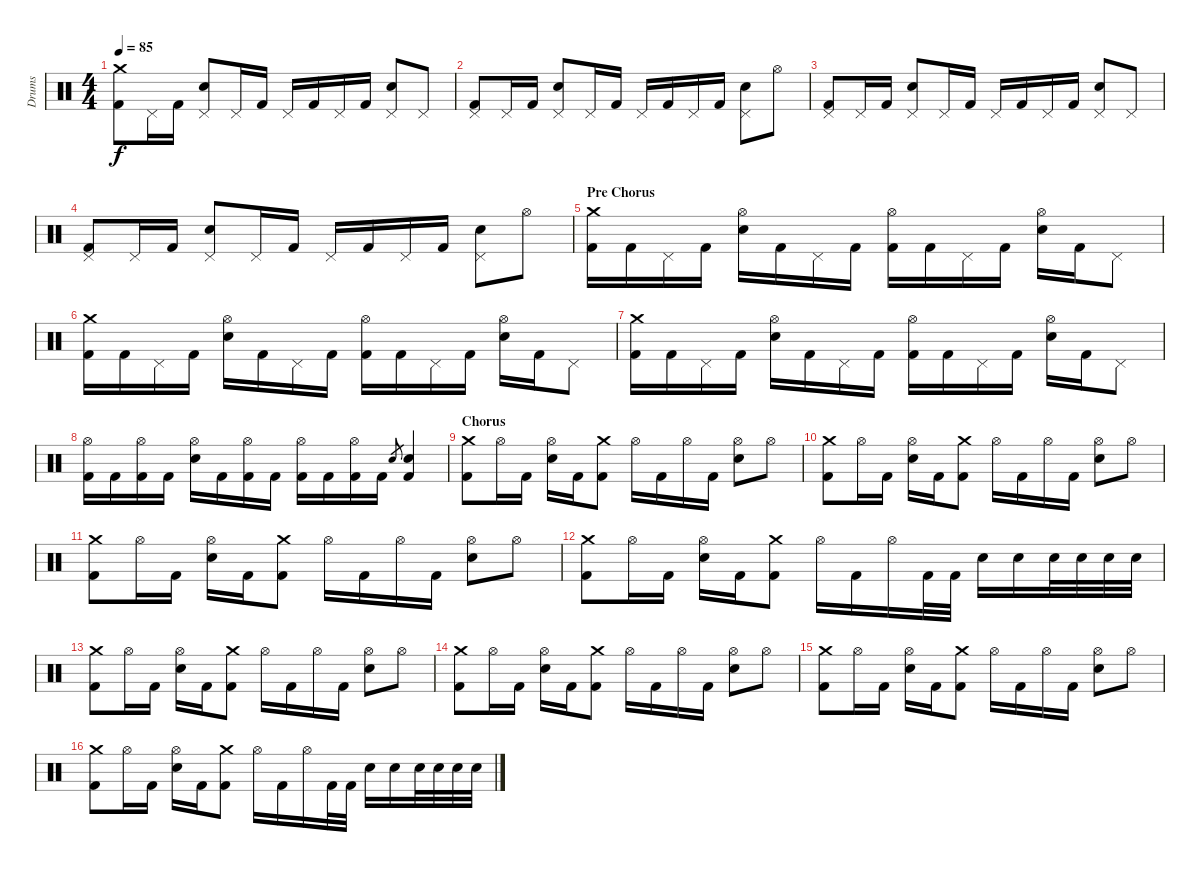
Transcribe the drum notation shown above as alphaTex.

\track ("Drums" "Drums") {instrument percussion}
\staff {score}
\articulation defaults
\ts (4 4)
\tempo 85
\clef neutral
\ks c
("Crash medium (hit)" "Kick (hit) 2").8{dy f} "Pedal Hi-Hat (hit)".16 "Kick (hit) 2".16 ("Pedal Hi-Hat (hit)" "Electric Snare (hit)").8 "Pedal Hi-Hat (hit)".16 "Kick (hit) 2".16 "Pedal Hi-Hat (hit)".16 "Kick (hit) 2".16 "Pedal Hi-Hat (hit)".16 "Kick (hit) 2".16 ("Pedal Hi-Hat (hit)" "Electric Snare (hit)").8 "Pedal Hi-Hat (hit)".8 |
("Pedal Hi-Hat (hit)" "Kick (hit) 2").8 "Pedal Hi-Hat (hit)".16 "Kick (hit) 2".16 ("Pedal Hi-Hat (hit)" "Electric Snare (hit)").8 "Pedal Hi-Hat (hit)".16 "Kick (hit) 2".16 "Pedal Hi-Hat (hit)".16 "Kick (hit) 2".16 "Pedal Hi-Hat (hit)".16 "Kick (hit) 2".16 ("Pedal Hi-Hat (hit)" "Electric Snare (hit)").8 "Hi-Hat (open)".8 |
("Pedal Hi-Hat (hit)" "Kick (hit) 2").8 "Pedal Hi-Hat (hit)".16 "Kick (hit) 2".16 ("Pedal Hi-Hat (hit)" "Electric Snare (hit)").8 "Pedal Hi-Hat (hit)".16 "Kick (hit) 2".16 "Pedal Hi-Hat (hit)".16 "Kick (hit) 2".16 "Pedal Hi-Hat (hit)".16 "Kick (hit) 2".16 ("Pedal Hi-Hat (hit)" "Electric Snare (hit)").8 "Pedal Hi-Hat (hit)".8 |
("Pedal Hi-Hat (hit)" "Kick (hit) 2").8 "Pedal Hi-Hat (hit)".16 "Kick (hit) 2".16 ("Pedal Hi-Hat (hit)" "Electric Snare (hit)").8 "Pedal Hi-Hat (hit)".16 "Kick (hit) 2".16 "Pedal Hi-Hat (hit)".16 "Kick (hit) 2".16 "Pedal Hi-Hat (hit)".16 "Kick (hit) 2".16 ("Pedal Hi-Hat (hit)" "Electric Snare (hit)").8 "Hi-Hat (open)".8 |
\section ("" "Pre Chorus")
("Crash medium (hit)" "Kick (hit) 2").16 "Kick (hit) 2".16 "Pedal Hi-Hat (hit)".16 "Kick (hit) 2".16 ("Hi-Hat (open)" "Electric Snare (hit)").16 "Kick (hit) 2".16 "Pedal Hi-Hat (hit)".16 "Kick (hit) 2".16 ("Hi-Hat (open)" "Kick (hit) 2").16 "Kick (hit) 2".16 "Pedal Hi-Hat (hit)".16 "Kick (hit) 2".16 ("Hi-Hat (open)" "Electric Snare (hit)").16 "Kick (hit) 2".16 "Pedal Hi-Hat (hit)".8 |
("Crash medium (hit)" "Kick (hit) 2").16 "Kick (hit) 2".16 "Pedal Hi-Hat (hit)".16 "Kick (hit) 2".16 ("Hi-Hat (open)" "Electric Snare (hit)").16 "Kick (hit) 2".16 "Pedal Hi-Hat (hit)".16 "Kick (hit) 2".16 ("Hi-Hat (open)" "Kick (hit) 2").16 "Kick (hit) 2".16 "Pedal Hi-Hat (hit)".16 "Kick (hit) 2".16 ("Hi-Hat (open)" "Electric Snare (hit)").16 "Kick (hit) 2".16 "Pedal Hi-Hat (hit)".8 |
("Crash medium (hit)" "Kick (hit) 2").16 "Kick (hit) 2".16 "Pedal Hi-Hat (hit)".16 "Kick (hit) 2".16 ("Hi-Hat (open)" "Electric Snare (hit)").16 "Kick (hit) 2".16 "Pedal Hi-Hat (hit)".16 "Kick (hit) 2".16 ("Hi-Hat (open)" "Kick (hit) 2").16 "Kick (hit) 2".16 "Pedal Hi-Hat (hit)".16 "Kick (hit) 2".16 ("Hi-Hat (open)" "Electric Snare (hit)").16 "Kick (hit) 2".16 "Pedal Hi-Hat (hit)".8 |
("Hi-Hat (open)" "Kick (hit) 2").16 "Kick (hit) 2".16 ("Hi-Hat (open)" "Kick (hit) 2").16 "Kick (hit) 2".16 ("Hi-Hat (open)" "Electric Snare (hit)").16 "Kick (hit) 2".16 ("Hi-Hat (open)" "Kick (hit) 2").16 "Kick (hit) 2".16 ("Hi-Hat (open)" "Kick (hit) 2").16 "Kick (hit) 2".16 ("Hi-Hat (open)" "Kick (hit) 2").16 "Kick (hit) 2".16 "Electric Snare (hit)".8{gr} ("Electric Snare (hit)" "Kick (hit) 2").4 |
\section ("" "Chorus")
("Crash medium (hit)" "Kick (hit) 2").8 "Hi-Hat (open)".16 "Kick (hit) 2".16 ("Hi-Hat (open)" "Electric Snare (hit)").16 "Kick (hit) 2".16 ("Crash medium (hit)" "Kick (hit) 2").8 "Hi-Hat (open)".16 "Kick (hit) 2".16 "Hi-Hat (open)".16 "Kick (hit) 2".16 ("Hi-Hat (open)" "Electric Snare (hit)").8 "Hi-Hat (open)".8 |
("Crash medium (hit)" "Kick (hit) 2").8 "Hi-Hat (open)".16 "Kick (hit) 2".16 ("Hi-Hat (open)" "Electric Snare (hit)").16 "Kick (hit) 2".16 ("Crash medium (hit)" "Kick (hit) 2").8 "Hi-Hat (open)".16 "Kick (hit) 2".16 "Hi-Hat (open)".16 "Kick (hit) 2".16 ("Hi-Hat (open)" "Electric Snare (hit)").8 "Hi-Hat (open)".8 |
("Crash medium (hit)" "Kick (hit) 2").8 "Hi-Hat (open)".16 "Kick (hit) 2".16 ("Hi-Hat (open)" "Electric Snare (hit)").16 "Kick (hit) 2".16 ("Crash medium (hit)" "Kick (hit) 2").8 "Hi-Hat (open)".16 "Kick (hit) 2".16 "Hi-Hat (open)".16 "Kick (hit) 2".16 ("Hi-Hat (open)" "Electric Snare (hit)").8 "Hi-Hat (open)".8 |
("Crash medium (hit)" "Kick (hit) 2").8 "Hi-Hat (open)".16 "Kick (hit) 2".16 ("Hi-Hat (open)" "Electric Snare (hit)").16 "Kick (hit) 2".16 ("Crash medium (hit)" "Kick (hit) 2").8 "Hi-Hat (open)".16 "Kick (hit) 2".16 "Hi-Hat (open)".16 "Kick (hit) 2".32 "Kick (hit) 2".32 "Electric Snare (hit)".16 "Electric Snare (hit)".16 "Electric Snare (hit)".32 "Electric Snare (hit)".32 "Electric Snare (hit)".32 "Electric Snare (hit)".32 |
("Crash medium (hit)" "Kick (hit) 2").8 "Hi-Hat (open)".16 "Kick (hit) 2".16 ("Hi-Hat (open)" "Electric Snare (hit)").16 "Kick (hit) 2".16 ("Crash medium (hit)" "Kick (hit) 2").8 "Hi-Hat (open)".16 "Kick (hit) 2".16 "Hi-Hat (open)".16 "Kick (hit) 2".16 ("Hi-Hat (open)" "Electric Snare (hit)").8 "Hi-Hat (open)".8 |
("Crash medium (hit)" "Kick (hit) 2").8 "Hi-Hat (open)".16 "Kick (hit) 2".16 ("Hi-Hat (open)" "Electric Snare (hit)").16 "Kick (hit) 2".16 ("Crash medium (hit)" "Kick (hit) 2").8 "Hi-Hat (open)".16 "Kick (hit) 2".16 "Hi-Hat (open)".16 "Kick (hit) 2".16 ("Hi-Hat (open)" "Electric Snare (hit)").8 "Hi-Hat (open)".8 |
("Crash medium (hit)" "Kick (hit) 2").8 "Hi-Hat (open)".16 "Kick (hit) 2".16 ("Hi-Hat (open)" "Electric Snare (hit)").16 "Kick (hit) 2".16 ("Crash medium (hit)" "Kick (hit) 2").8 "Hi-Hat (open)".16 "Kick (hit) 2".16 "Hi-Hat (open)".16 "Kick (hit) 2".16 ("Hi-Hat (open)" "Electric Snare (hit)").8 "Hi-Hat (open)".8 |
("Crash medium (hit)" "Kick (hit) 2").8 "Hi-Hat (open)".16 "Kick (hit) 2".16 ("Hi-Hat (open)" "Electric Snare (hit)").16 "Kick (hit) 2".16 ("Crash medium (hit)" "Kick (hit) 2").8 "Hi-Hat (open)".16 "Kick (hit) 2".16 "Hi-Hat (open)".16 "Kick (hit) 2".32 "Kick (hit) 2".32 "Electric Snare (hit)".16 "Electric Snare (hit)".16 "Electric Snare (hit)".32 "Electric Snare (hit)".32 "Electric Snare (hit)".32 "Electric Snare (hit)".32
